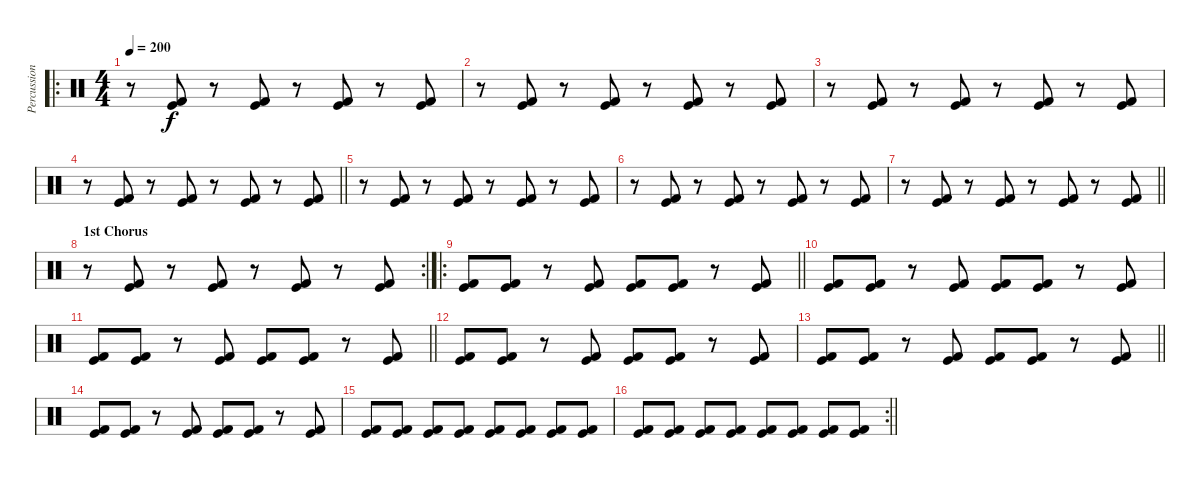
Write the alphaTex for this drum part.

\track ("Percussion" "Percussion") {instrument percussion}
\staff {score}
\articulation defaults
\ro
\ts (4 4)
\tempo 200
\clef neutral
\ks c
r.8{dy f} ("Kick (hit) 2" "Kick (hit)").8 r.8 ("Kick (hit) 2" "Kick (hit)").8 r.8 ("Kick (hit) 2" "Kick (hit)").8 r.8 ("Kick (hit) 2" "Kick (hit)").8 |
r.8 ("Kick (hit) 2" "Kick (hit)").8 r.8 ("Kick (hit) 2" "Kick (hit)").8 r.8 ("Kick (hit) 2" "Kick (hit)").8 r.8 ("Kick (hit) 2" "Kick (hit)").8 |
r.8 ("Kick (hit) 2" "Kick (hit)").8 r.8 ("Kick (hit) 2" "Kick (hit)").8 r.8 ("Kick (hit) 2" "Kick (hit)").8 r.8 ("Kick (hit) 2" "Kick (hit)").8 |
\barLineRight lightlight
r.8 ("Kick (hit) 2" "Kick (hit)").8 r.8 ("Kick (hit) 2" "Kick (hit)").8 r.8 ("Kick (hit) 2" "Kick (hit)").8 r.8 ("Kick (hit) 2" "Kick (hit)").8 |
r.8 ("Kick (hit) 2" "Kick (hit)").8 r.8 ("Kick (hit) 2" "Kick (hit)").8 r.8 ("Kick (hit) 2" "Kick (hit)").8 r.8 ("Kick (hit) 2" "Kick (hit)").8 |
r.8 ("Kick (hit) 2" "Kick (hit)").8 r.8 ("Kick (hit) 2" "Kick (hit)").8 r.8 ("Kick (hit) 2" "Kick (hit)").8 r.8 ("Kick (hit) 2" "Kick (hit)").8 |
\barLineRight lightlight
r.8 ("Kick (hit) 2" "Kick (hit)").8 r.8 ("Kick (hit) 2" "Kick (hit)").8 r.8 ("Kick (hit) 2" "Kick (hit)").8 r.8 ("Kick (hit) 2" "Kick (hit)").8 |
\rc 2
\section ("" "1st Chorus")
r.8 ("Kick (hit) 2" "Kick (hit)").8 r.8 ("Kick (hit) 2" "Kick (hit)").8 r.8 ("Kick (hit) 2" "Kick (hit)").8 r.8 ("Kick (hit) 2" "Kick (hit)").8 |
\ro
\barLineRight lightlight
("Kick (hit) 2" "Kick (hit)").8 ("Kick (hit) 2" "Kick (hit)").8 r.8 ("Kick (hit) 2" "Kick (hit)").8 ("Kick (hit) 2" "Kick (hit)").8 ("Kick (hit) 2" "Kick (hit)").8 r.8 ("Kick (hit) 2" "Kick (hit)").8 |
\section ("" "")
("Kick (hit) 2" "Kick (hit)").8 ("Kick (hit) 2" "Kick (hit)").8 r.8 ("Kick (hit) 2" "Kick (hit)").8 ("Kick (hit) 2" "Kick (hit)").8 ("Kick (hit) 2" "Kick (hit)").8 r.8 ("Kick (hit) 2" "Kick (hit)").8 |
\barLineRight lightlight
("Kick (hit) 2" "Kick (hit)").8 ("Kick (hit) 2" "Kick (hit)").8 r.8 ("Kick (hit) 2" "Kick (hit)").8 ("Kick (hit) 2" "Kick (hit)").8 ("Kick (hit) 2" "Kick (hit)").8 r.8 ("Kick (hit) 2" "Kick (hit)").8 |
("Kick (hit) 2" "Kick (hit)").8 ("Kick (hit) 2" "Kick (hit)").8 r.8 ("Kick (hit) 2" "Kick (hit)").8 ("Kick (hit) 2" "Kick (hit)").8 ("Kick (hit) 2" "Kick (hit)").8 r.8 ("Kick (hit) 2" "Kick (hit)").8 |
\barLineRight lightlight
("Kick (hit) 2" "Kick (hit)").8 ("Kick (hit) 2" "Kick (hit)").8 r.8 ("Kick (hit) 2" "Kick (hit)").8 ("Kick (hit) 2" "Kick (hit)").8 ("Kick (hit) 2" "Kick (hit)").8 r.8 ("Kick (hit) 2" "Kick (hit)").8 |
("Kick (hit) 2" "Kick (hit)").8 ("Kick (hit) 2" "Kick (hit)").8 r.8 ("Kick (hit) 2" "Kick (hit)").8 ("Kick (hit) 2" "Kick (hit)").8 ("Kick (hit) 2" "Kick (hit)").8 r.8 ("Kick (hit) 2" "Kick (hit)").8 |
("Kick (hit) 2" "Kick (hit)").8 ("Kick (hit) 2" "Kick (hit)").8 ("Kick (hit) 2" "Kick (hit)").8 ("Kick (hit) 2" "Kick (hit)").8 ("Kick (hit) 2" "Kick (hit)").8 ("Kick (hit) 2" "Kick (hit)").8 ("Kick (hit)" "Kick (hit) 2").8 ("Kick (hit) 2" "Kick (hit)").8 |
\rc 2
\barLineRight lightlight
("Kick (hit) 2" "Kick (hit)").8 ("Kick (hit) 2" "Kick (hit)").8 ("Kick (hit) 2" "Kick (hit)").8 ("Kick (hit) 2" "Kick (hit)").8 ("Kick (hit) 2" "Kick (hit)").8 ("Kick (hit) 2" "Kick (hit)").8 ("Kick (hit) 2" "Kick (hit)").8 ("Kick (hit) 2" "Kick (hit)").8
